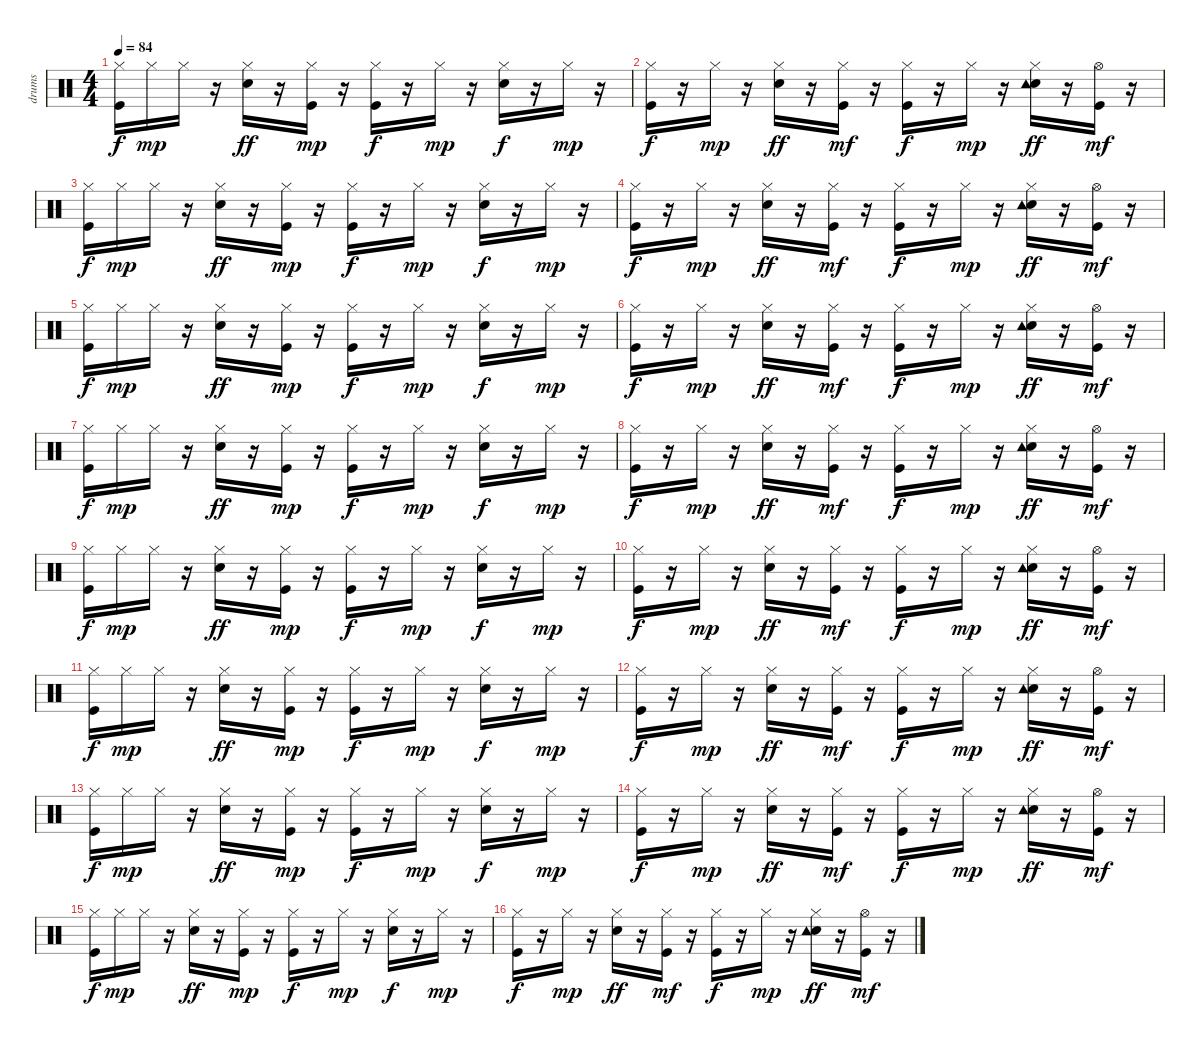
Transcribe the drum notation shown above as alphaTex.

\track ("drums" "drums") {instrument percussion}
\staff {score}
\articulation defaults
\ts (4 4)
\tempo 84
\clef neutral
\ks c
("Kick (hit)" "Hi-Hat (closed)").16{dy f} "Hi-Hat (closed)".16{dy mp} "Hi-Hat (closed)".16 r.16 ("Snare (hit) 2" "Hi-Hat (closed)").16{dy ff} r.16 ("Kick (hit)" "Hi-Hat (closed)").16{dy mp} r.16 ("Kick (hit)" "Hi-Hat (closed)").16{dy f} r.16 "Hi-Hat (closed)".16{dy mp} r.16 ("Snare (hit) 2" "Hi-Hat (closed)").16{dy f} r.16 "Hi-Hat (closed)".16{dy mp} r.16 |
("Kick (hit)" "Hi-Hat (closed)").16{dy f} r.16 "Hi-Hat (closed)".16{dy mp} r.16 ("Snare (hit) 2" "Hi-Hat (closed)").16{dy ff} r.16 ("Kick (hit)" "Hi-Hat (closed)").16{dy mf} r.16 ("Kick (hit)" "Hi-Hat (closed)").16{dy f} r.16 "Hi-Hat (closed)".16{dy mp} r.16 ("Snare (hit) 2" "Hi-Hat (closed)" "Tambourine (hit)").16{dy ff} r.16 ("Kick (hit)" "Hi-Hat (open)").16{dy mf} r.16 |
("Kick (hit)" "Hi-Hat (closed)").16{dy f} "Hi-Hat (closed)".16{dy mp} "Hi-Hat (closed)".16 r.16 ("Snare (hit) 2" "Hi-Hat (closed)").16{dy ff} r.16 ("Kick (hit)" "Hi-Hat (closed)").16{dy mp} r.16 ("Kick (hit)" "Hi-Hat (closed)").16{dy f} r.16 "Hi-Hat (closed)".16{dy mp} r.16 ("Snare (hit) 2" "Hi-Hat (closed)").16{dy f} r.16 "Hi-Hat (closed)".16{dy mp} r.16 |
("Kick (hit)" "Hi-Hat (closed)").16{dy f} r.16 "Hi-Hat (closed)".16{dy mp} r.16 ("Snare (hit) 2" "Hi-Hat (closed)").16{dy ff} r.16 ("Kick (hit)" "Hi-Hat (closed)").16{dy mf} r.16 ("Kick (hit)" "Hi-Hat (closed)").16{dy f} r.16 "Hi-Hat (closed)".16{dy mp} r.16 ("Snare (hit) 2" "Hi-Hat (closed)" "Tambourine (hit)").16{dy ff} r.16 ("Kick (hit)" "Hi-Hat (open)").16{dy mf} r.16 |
("Kick (hit)" "Hi-Hat (closed)").16{dy f} "Hi-Hat (closed)".16{dy mp} "Hi-Hat (closed)".16 r.16 ("Snare (hit) 2" "Hi-Hat (closed)").16{dy ff} r.16 ("Kick (hit)" "Hi-Hat (closed)").16{dy mp} r.16 ("Kick (hit)" "Hi-Hat (closed)").16{dy f} r.16 "Hi-Hat (closed)".16{dy mp} r.16 ("Snare (hit) 2" "Hi-Hat (closed)").16{dy f} r.16 "Hi-Hat (closed)".16{dy mp} r.16 |
("Kick (hit)" "Hi-Hat (closed)").16{dy f} r.16 "Hi-Hat (closed)".16{dy mp} r.16 ("Snare (hit) 2" "Hi-Hat (closed)").16{dy ff} r.16 ("Kick (hit)" "Hi-Hat (closed)").16{dy mf} r.16 ("Kick (hit)" "Hi-Hat (closed)").16{dy f} r.16 "Hi-Hat (closed)".16{dy mp} r.16 ("Snare (hit) 2" "Hi-Hat (closed)" "Tambourine (hit)").16{dy ff} r.16 ("Kick (hit)" "Hi-Hat (open)").16{dy mf} r.16 |
("Kick (hit)" "Hi-Hat (closed)").16{dy f} "Hi-Hat (closed)".16{dy mp} "Hi-Hat (closed)".16 r.16 ("Snare (hit) 2" "Hi-Hat (closed)").16{dy ff} r.16 ("Kick (hit)" "Hi-Hat (closed)").16{dy mp} r.16 ("Kick (hit)" "Hi-Hat (closed)").16{dy f} r.16 "Hi-Hat (closed)".16{dy mp} r.16 ("Snare (hit) 2" "Hi-Hat (closed)").16{dy f} r.16 "Hi-Hat (closed)".16{dy mp} r.16 |
("Kick (hit)" "Hi-Hat (closed)").16{dy f} r.16 "Hi-Hat (closed)".16{dy mp} r.16 ("Snare (hit) 2" "Hi-Hat (closed)").16{dy ff} r.16 ("Kick (hit)" "Hi-Hat (closed)").16{dy mf} r.16 ("Kick (hit)" "Hi-Hat (closed)").16{dy f} r.16 "Hi-Hat (closed)".16{dy mp} r.16 ("Snare (hit) 2" "Hi-Hat (closed)" "Tambourine (hit)").16{dy ff} r.16 ("Kick (hit)" "Hi-Hat (open)").16{dy mf} r.16 |
("Kick (hit)" "Hi-Hat (closed)").16{dy f} "Hi-Hat (closed)".16{dy mp} "Hi-Hat (closed)".16 r.16 ("Snare (hit) 2" "Hi-Hat (closed)").16{dy ff} r.16 ("Kick (hit)" "Hi-Hat (closed)").16{dy mp} r.16 ("Kick (hit)" "Hi-Hat (closed)").16{dy f} r.16 "Hi-Hat (closed)".16{dy mp} r.16 ("Snare (hit) 2" "Hi-Hat (closed)").16{dy f} r.16 "Hi-Hat (closed)".16{dy mp} r.16 |
("Kick (hit)" "Hi-Hat (closed)").16{dy f} r.16 "Hi-Hat (closed)".16{dy mp} r.16 ("Snare (hit) 2" "Hi-Hat (closed)").16{dy ff} r.16 ("Kick (hit)" "Hi-Hat (closed)").16{dy mf} r.16 ("Kick (hit)" "Hi-Hat (closed)").16{dy f} r.16 "Hi-Hat (closed)".16{dy mp} r.16 ("Snare (hit) 2" "Hi-Hat (closed)" "Tambourine (hit)").16{dy ff} r.16 ("Kick (hit)" "Hi-Hat (open)").16{dy mf} r.16 |
("Kick (hit)" "Hi-Hat (closed)").16{dy f} "Hi-Hat (closed)".16{dy mp} "Hi-Hat (closed)".16 r.16 ("Snare (hit) 2" "Hi-Hat (closed)").16{dy ff} r.16 ("Kick (hit)" "Hi-Hat (closed)").16{dy mp} r.16 ("Kick (hit)" "Hi-Hat (closed)").16{dy f} r.16 "Hi-Hat (closed)".16{dy mp} r.16 ("Snare (hit) 2" "Hi-Hat (closed)").16{dy f} r.16 "Hi-Hat (closed)".16{dy mp} r.16 |
("Kick (hit)" "Hi-Hat (closed)").16{dy f} r.16 "Hi-Hat (closed)".16{dy mp} r.16 ("Snare (hit) 2" "Hi-Hat (closed)").16{dy ff} r.16 ("Kick (hit)" "Hi-Hat (closed)").16{dy mf} r.16 ("Kick (hit)" "Hi-Hat (closed)").16{dy f} r.16 "Hi-Hat (closed)".16{dy mp} r.16 ("Snare (hit) 2" "Hi-Hat (closed)" "Tambourine (hit)").16{dy ff} r.16 ("Kick (hit)" "Hi-Hat (open)").16{dy mf} r.16 |
("Kick (hit)" "Hi-Hat (closed)").16{dy f} "Hi-Hat (closed)".16{dy mp} "Hi-Hat (closed)".16 r.16 ("Snare (hit) 2" "Hi-Hat (closed)").16{dy ff} r.16 ("Kick (hit)" "Hi-Hat (closed)").16{dy mp} r.16 ("Kick (hit)" "Hi-Hat (closed)").16{dy f} r.16 "Hi-Hat (closed)".16{dy mp} r.16 ("Snare (hit) 2" "Hi-Hat (closed)").16{dy f} r.16 "Hi-Hat (closed)".16{dy mp} r.16 |
("Kick (hit)" "Hi-Hat (closed)").16{dy f} r.16 "Hi-Hat (closed)".16{dy mp} r.16 ("Snare (hit) 2" "Hi-Hat (closed)").16{dy ff} r.16 ("Kick (hit)" "Hi-Hat (closed)").16{dy mf} r.16 ("Kick (hit)" "Hi-Hat (closed)").16{dy f} r.16 "Hi-Hat (closed)".16{dy mp} r.16 ("Snare (hit) 2" "Hi-Hat (closed)" "Tambourine (hit)").16{dy ff} r.16 ("Kick (hit)" "Hi-Hat (open)").16{dy mf} r.16 |
("Kick (hit)" "Hi-Hat (closed)").16{dy f} "Hi-Hat (closed)".16{dy mp} "Hi-Hat (closed)".16 r.16 ("Snare (hit) 2" "Hi-Hat (closed)").16{dy ff} r.16 ("Kick (hit)" "Hi-Hat (closed)").16{dy mp} r.16 ("Kick (hit)" "Hi-Hat (closed)").16{dy f} r.16 "Hi-Hat (closed)".16{dy mp} r.16 ("Snare (hit) 2" "Hi-Hat (closed)").16{dy f} r.16 "Hi-Hat (closed)".16{dy mp} r.16 |
("Kick (hit)" "Hi-Hat (closed)").16{dy f} r.16 "Hi-Hat (closed)".16{dy mp} r.16 ("Snare (hit) 2" "Hi-Hat (closed)").16{dy ff} r.16 ("Kick (hit)" "Hi-Hat (closed)").16{dy mf} r.16 ("Kick (hit)" "Hi-Hat (closed)").16{dy f} r.16 "Hi-Hat (closed)".16{dy mp} r.16 ("Snare (hit) 2" "Hi-Hat (closed)" "Tambourine (hit)").16{dy ff} r.16 ("Kick (hit)" "Hi-Hat (open)").16{dy mf} r.16
